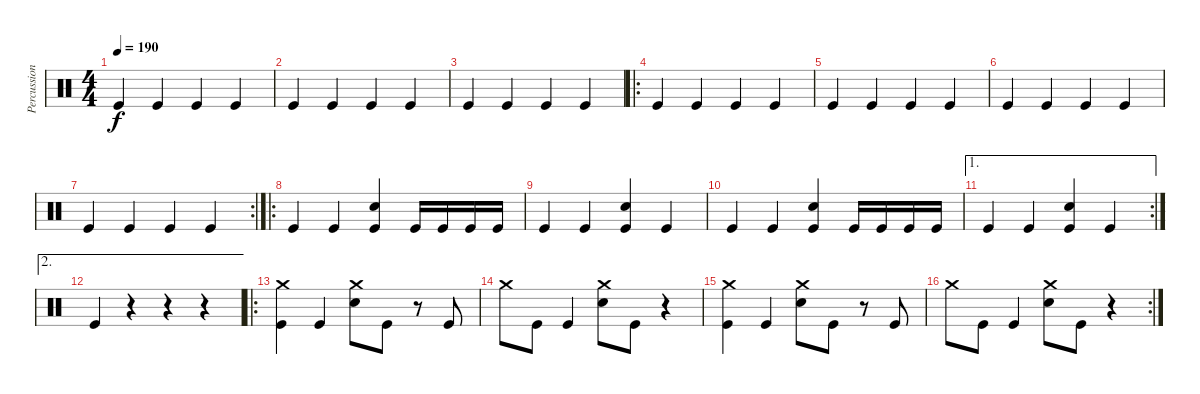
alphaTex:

\track ("Percussion" "Percussion") {instrument percussion}
\staff {score}
\articulation defaults
\ts (4 4)
\tempo 190
\clef neutral
\ks c "Kick (hit)".4{dy f} "Kick (hit)".4 "Kick (hit)".4 "Kick (hit)".4
|
"Kick (hit)".4 "Kick (hit)".4 "Kick (hit)".4 "Kick (hit)".4 |
"Kick (hit)".4 "Kick (hit)".4 "Kick (hit)".4 "Kick (hit)".4 |
\ro "Kick (hit)".4 "Kick (hit)".4 "Kick (hit)".4 "Kick (hit)".4
|
"Kick (hit)".4 "Kick (hit)".4 "Kick (hit)".4 "Kick (hit)".4 |
"Kick (hit)".4 "Kick (hit)".4 "Kick (hit)".4 "Kick (hit)".4 |
\rc 2 "Kick (hit)".4 "Kick (hit)".4 "Kick (hit)".4 "Kick (hit)".4
|
\ro "Kick (hit)".4 "Kick (hit)".4
("Snare (hit) 2" "Kick (hit)").4 "Kick (hit)".16 "Kick (hit)".16 "Kick (hit)".16 "Kick (hit)".16 |
"Kick (hit)".4 "Kick (hit)".4 ("Snare (hit) 2" "Kick (hit)").4 "Kick (hit)".4 |
"Kick (hit)".4 "Kick (hit)".4 ("Snare (hit) 2" "Kick (hit)").4 "Kick (hit)".16 "Kick (hit)".16 "Kick (hit)".16 "Kick (hit)".16 |
\ae 1
\rc 2 "Kick (hit)".4 "Kick (hit)".4
("Snare (hit) 2" "Kick (hit)").4 "Kick (hit)".4 |
\ae 2 "Kick (hit)".4
r.4 r.4 r.4 |
\ro
("Crash medium (hit)" "Kick (hit)").4 "Kick (hit)".4 ("Crash medium (hit)" "Snare (hit) 2").8 "Kick (hit)".8 r.8 "Kick (hit)".8 |
"Crash medium (hit)".8 "Kick (hit)".8 "Kick (hit)".4 ("Crash medium (hit)" "Snare (hit) 2").8 "Kick (hit)".8 r.4 |
("Crash medium (hit)" "Kick (hit)").4 "Kick (hit)".4 ("Crash medium (hit)" "Snare (hit) 2").8 "Kick (hit)".8 r.8 "Kick (hit)".8 |
\rc 2 "Crash medium (hit)".8 "Kick (hit)".8 "Kick (hit)".4
("Crash medium (hit)" "Snare (hit) 2").8 "Kick (hit)".8 r.4
